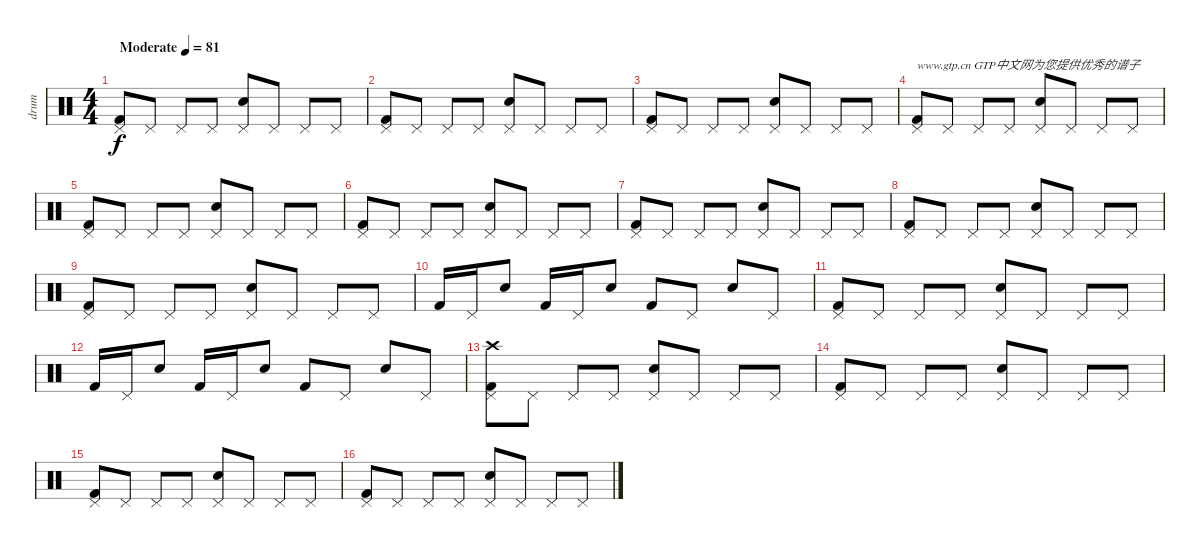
\track ("drum" "drum") {instrument percussion}
\staff {score}
\articulation defaults
\ts (4 4)
\tempo (81 "Moderate")
\clef neutral
\ks c
("Pedal Hi-Hat (hit)" "Kick (hit) 2").8{dy f} "Pedal Hi-Hat (hit)".8 "Pedal Hi-Hat (hit)".8 "Pedal Hi-Hat (hit)".8 ("Pedal Hi-Hat (hit)" "Electric Snare (hit)").8 "Pedal Hi-Hat (hit)".8 "Pedal Hi-Hat (hit)".8 "Pedal Hi-Hat (hit)".8 |
("Pedal Hi-Hat (hit)" "Kick (hit) 2").8 "Pedal Hi-Hat (hit)".8 "Pedal Hi-Hat (hit)".8 "Pedal Hi-Hat (hit)".8 ("Pedal Hi-Hat (hit)" "Electric Snare (hit)").8 "Pedal Hi-Hat (hit)".8 "Pedal Hi-Hat (hit)".8 "Pedal Hi-Hat (hit)".8 |
("Pedal Hi-Hat (hit)" "Kick (hit) 2").8 "Pedal Hi-Hat (hit)".8 "Pedal Hi-Hat (hit)".8 "Pedal Hi-Hat (hit)".8 ("Pedal Hi-Hat (hit)" "Electric Snare (hit)").8 "Pedal Hi-Hat (hit)".8 "Pedal Hi-Hat (hit)".8 "Pedal Hi-Hat (hit)".8 |
("Pedal Hi-Hat (hit)" "Kick (hit) 2").8{txt "www.gtp.cn GTP中文网为您提供优秀的谱子"} "Pedal Hi-Hat (hit)".8 "Pedal Hi-Hat (hit)".8 "Pedal Hi-Hat (hit)".8 ("Pedal Hi-Hat (hit)" "Electric Snare (hit)").8 "Pedal Hi-Hat (hit)".8 "Pedal Hi-Hat (hit)".8 "Pedal Hi-Hat (hit)".8 |
("Pedal Hi-Hat (hit)" "Kick (hit) 2").8 "Pedal Hi-Hat (hit)".8 "Pedal Hi-Hat (hit)".8 "Pedal Hi-Hat (hit)".8 ("Pedal Hi-Hat (hit)" "Electric Snare (hit)").8 "Pedal Hi-Hat (hit)".8 "Pedal Hi-Hat (hit)".8 "Pedal Hi-Hat (hit)".8 |
("Pedal Hi-Hat (hit)" "Kick (hit) 2").8 "Pedal Hi-Hat (hit)".8 "Pedal Hi-Hat (hit)".8 "Pedal Hi-Hat (hit)".8 ("Pedal Hi-Hat (hit)" "Electric Snare (hit)").8 "Pedal Hi-Hat (hit)".8 "Pedal Hi-Hat (hit)".8 "Pedal Hi-Hat (hit)".8 |
("Pedal Hi-Hat (hit)" "Kick (hit) 2").8 "Pedal Hi-Hat (hit)".8 "Pedal Hi-Hat (hit)".8 "Pedal Hi-Hat (hit)".8 ("Pedal Hi-Hat (hit)" "Electric Snare (hit)").8 "Pedal Hi-Hat (hit)".8 "Pedal Hi-Hat (hit)".8 "Pedal Hi-Hat (hit)".8 |
("Pedal Hi-Hat (hit)" "Kick (hit) 2").8 "Pedal Hi-Hat (hit)".8 "Pedal Hi-Hat (hit)".8 "Pedal Hi-Hat (hit)".8 ("Pedal Hi-Hat (hit)" "Electric Snare (hit)").8 "Pedal Hi-Hat (hit)".8 "Pedal Hi-Hat (hit)".8 "Pedal Hi-Hat (hit)".8 |
("Pedal Hi-Hat (hit)" "Kick (hit) 2").8 "Pedal Hi-Hat (hit)".8 "Pedal Hi-Hat (hit)".8 "Pedal Hi-Hat (hit)".8 ("Pedal Hi-Hat (hit)" "Electric Snare (hit)").8 "Pedal Hi-Hat (hit)".8 "Pedal Hi-Hat (hit)".8 "Pedal Hi-Hat (hit)".8 |
"Kick (hit) 2".16 "Pedal Hi-Hat (hit)".16 "Electric Snare (hit)".8 "Kick (hit) 2".16 "Pedal Hi-Hat (hit)".16 "Electric Snare (hit)".8 "Kick (hit) 2".8 "Pedal Hi-Hat (hit)".8 "Electric Snare (hit)".8 "Pedal Hi-Hat (hit)".8 |
("Pedal Hi-Hat (hit)" "Kick (hit) 2").8 "Pedal Hi-Hat (hit)".8 "Pedal Hi-Hat (hit)".8 "Pedal Hi-Hat (hit)".8 ("Pedal Hi-Hat (hit)" "Electric Snare (hit)").8 "Pedal Hi-Hat (hit)".8 "Pedal Hi-Hat (hit)".8 "Pedal Hi-Hat (hit)".8 |
"Kick (hit) 2".16 "Pedal Hi-Hat (hit)".16 "Electric Snare (hit)".8 "Kick (hit) 2".16 "Pedal Hi-Hat (hit)".16 "Electric Snare (hit)".8 "Kick (hit) 2".8 "Pedal Hi-Hat (hit)".8 "Electric Snare (hit)".8 "Pedal Hi-Hat (hit)".8 |
("Pedal Hi-Hat (hit)" "Kick (hit) 2" "Crash high (hit)").8 "Pedal Hi-Hat (hit)".8 "Pedal Hi-Hat (hit)".8 "Pedal Hi-Hat (hit)".8 ("Pedal Hi-Hat (hit)" "Electric Snare (hit)").8 "Pedal Hi-Hat (hit)".8 "Pedal Hi-Hat (hit)".8 "Pedal Hi-Hat (hit)".8 |
("Pedal Hi-Hat (hit)" "Kick (hit) 2").8 "Pedal Hi-Hat (hit)".8 "Pedal Hi-Hat (hit)".8 "Pedal Hi-Hat (hit)".8 ("Pedal Hi-Hat (hit)" "Electric Snare (hit)").8 "Pedal Hi-Hat (hit)".8 "Pedal Hi-Hat (hit)".8 "Pedal Hi-Hat (hit)".8 |
("Pedal Hi-Hat (hit)" "Kick (hit) 2").8 "Pedal Hi-Hat (hit)".8 "Pedal Hi-Hat (hit)".8 "Pedal Hi-Hat (hit)".8 ("Pedal Hi-Hat (hit)" "Electric Snare (hit)").8 "Pedal Hi-Hat (hit)".8 "Pedal Hi-Hat (hit)".8 "Pedal Hi-Hat (hit)".8 |
("Pedal Hi-Hat (hit)" "Kick (hit) 2").8 "Pedal Hi-Hat (hit)".8 "Pedal Hi-Hat (hit)".8 "Pedal Hi-Hat (hit)".8 ("Pedal Hi-Hat (hit)" "Electric Snare (hit)").8 "Pedal Hi-Hat (hit)".8 "Pedal Hi-Hat (hit)".8 "Pedal Hi-Hat (hit)".8
